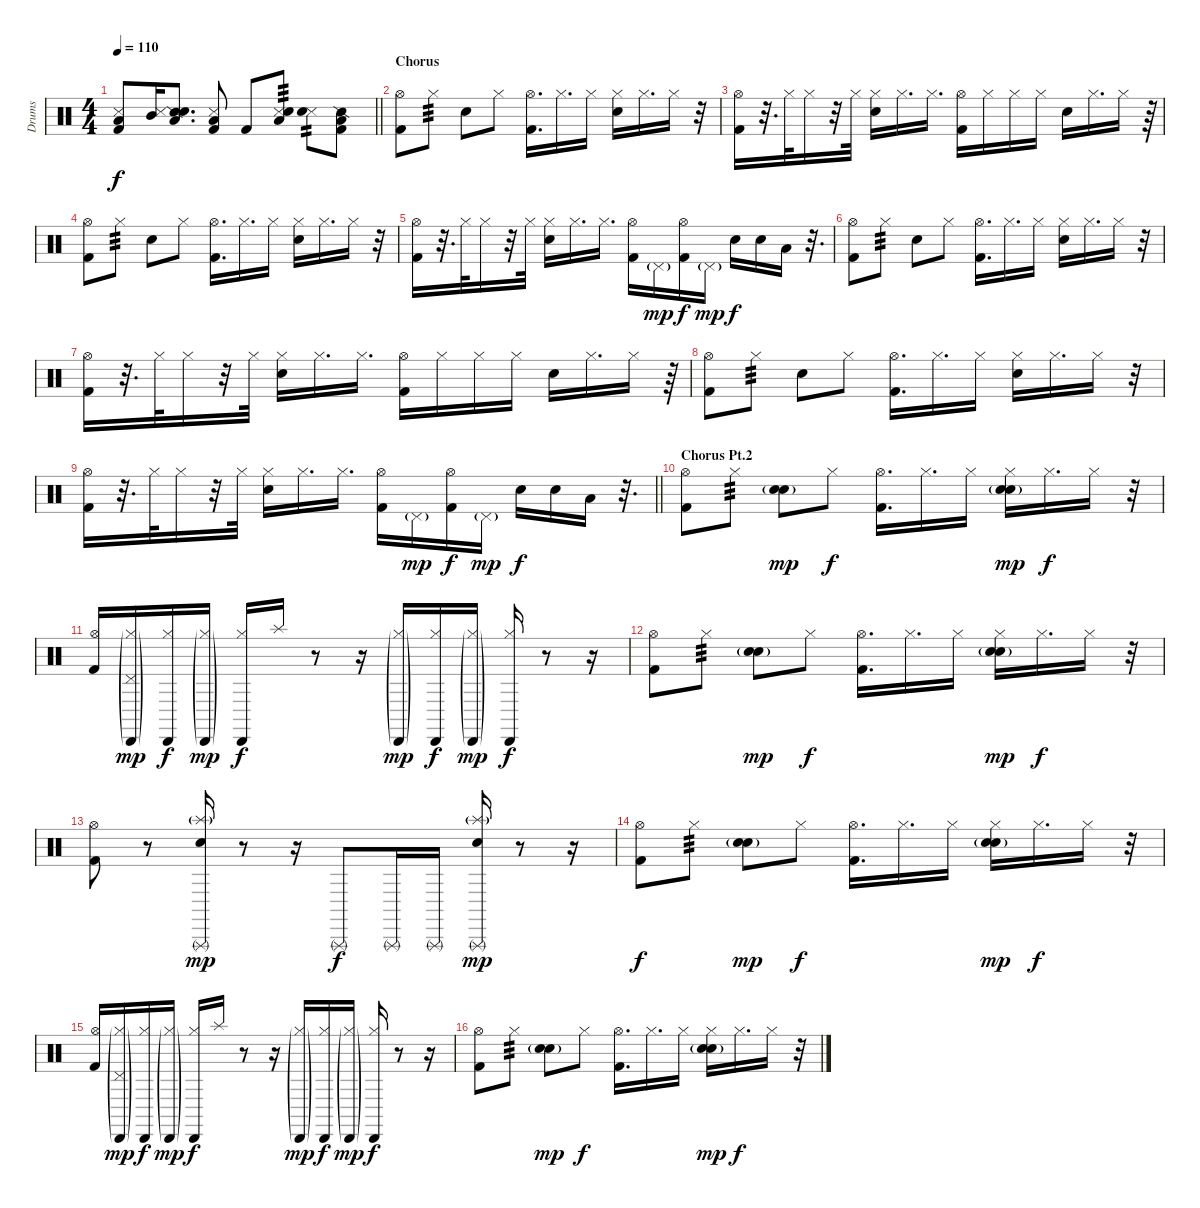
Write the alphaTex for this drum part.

\track ("Drums" "Drums") {instrument percussion}
\staff {score}
\articulation defaults
\ts (4 4)
\tempo 110
\clef neutral
\barLineRight lightlight
\ks c
("Snare (side stick) 3" "Low Tom (hit)" "Kick (hit) 2").8{dy f} ("Snare (side stick) 3" "Mid Tom (hit)").16 ("Snare (side stick) 2" "Low Tom (hit)" "Snare (hit) 2").8{d} ("Snare (side stick) 3" "Low Tom (hit)" "Kick (hit) 2").8 "Kick (hit) 2".8 ("Snare (side stick) 3" "Low Tom (hit)" "Snare (hit) 2").8{tp 3} ("Snare (side stick) 3" "Snare (hit) 2").8{tp 2} ("Snare (side stick) 2" "Low Tom (hit)" "Kick (hit) 2").8 |
\section ("" "Chorus")
("Hi-Hat (open)" "Kick (hit) 2").8 "Hi-Hat (closed)".8{tp 3} "Snare (hit) 2".8 "Hi-Hat (closed)".8 ("Hi-Hat (open)" "Kick (hit) 2").16{d} "Hi-Hat (closed)".16{d} "Hi-Hat (closed)".16 ("Hi-Hat (closed)" "Snare (hit) 2").16 "Hi-Hat (closed)".16{d} "Hi-Hat (closed)".16 r.32 |
("Hi-Hat (open)" "Kick (hit) 2").16 r.32{d} "Hi-Hat (closed)".32 "Hi-Hat (closed)".16 r.32 "Hi-Hat (closed)".32 ("Hi-Hat (closed)" "Snare (hit) 2").16 "Hi-Hat (closed)".16{d} "Hi-Hat (closed)".16{d} ("Hi-Hat (open)" "Kick (hit) 2").16 "Hi-Hat (closed)".16 "Hi-Hat (closed)".16 "Hi-Hat (closed)".16 "Snare (hit) 2".16 "Hi-Hat (closed)".16{d} "Hi-Hat (closed)".16 r.64 |
("Hi-Hat (open)" "Kick (hit) 2").8 "Hi-Hat (closed)".8{tp 3} "Snare (hit) 2".8 "Hi-Hat (closed)".8 ("Hi-Hat (open)" "Kick (hit) 2").16{d} "Hi-Hat (closed)".16{d} "Hi-Hat (closed)".16 ("Hi-Hat (closed)" "Snare (hit) 2").16 "Hi-Hat (closed)".16{d} "Hi-Hat (closed)".16 r.32 |
("Hi-Hat (open)" "Kick (hit) 2").16 r.32{d} "Hi-Hat (closed)".32 "Hi-Hat (closed)".16 r.32 "Hi-Hat (closed)".32 ("Hi-Hat (closed)" "Snare (hit) 2").16 "Hi-Hat (closed)".16{d} "Hi-Hat (closed)".16{d} ("Hi-Hat (open)" "Kick (hit) 2").16 "Pedal Hi-Hat (hit)"{g}.16{dy mp} ("Hi-Hat (open)" "Kick (hit) 2").16{dy f} "Pedal Hi-Hat (hit)"{g}.16{dy mp} "Snare (hit) 2".16{dy f} "Snare (hit) 2".16 "Low Tom (hit)".16 r.32{d} |
("Hi-Hat (open)" "Kick (hit) 2").8 "Hi-Hat (closed)".8{tp 3} "Snare (hit) 2".8 "Hi-Hat (closed)".8 ("Hi-Hat (open)" "Kick (hit) 2").16{d} "Hi-Hat (closed)".16{d} "Hi-Hat (closed)".16 ("Hi-Hat (closed)" "Snare (hit) 2").16 "Hi-Hat (closed)".16{d} "Hi-Hat (closed)".16 r.32 |
("Hi-Hat (open)" "Kick (hit) 2").16 r.32{d} "Hi-Hat (closed)".32 "Hi-Hat (closed)".16 r.32 "Hi-Hat (closed)".32 ("Hi-Hat (closed)" "Snare (hit) 2").16 "Hi-Hat (closed)".16{d} "Hi-Hat (closed)".16{d} ("Hi-Hat (open)" "Kick (hit) 2").16 "Hi-Hat (closed)".16 "Hi-Hat (closed)".16 "Hi-Hat (closed)".16 "Snare (hit) 2".16 "Hi-Hat (closed)".16{d} "Hi-Hat (closed)".16 r.64 |
("Hi-Hat (open)" "Kick (hit) 2").8 "Hi-Hat (closed)".8{tp 3} "Snare (hit) 2".8 "Hi-Hat (closed)".8 ("Hi-Hat (open)" "Kick (hit) 2").16{d} "Hi-Hat (closed)".16{d} "Hi-Hat (closed)".16 ("Hi-Hat (closed)" "Snare (hit) 2").16 "Hi-Hat (closed)".16{d} "Hi-Hat (closed)".16 r.32 |
\barLineRight lightlight
("Hi-Hat (open)" "Kick (hit) 2").16 r.32{d} "Hi-Hat (closed)".32 "Hi-Hat (closed)".16 r.32 "Hi-Hat (closed)".32 ("Hi-Hat (closed)" "Snare (hit) 2").16 "Hi-Hat (closed)".16{d} "Hi-Hat (closed)".16{d} ("Hi-Hat (open)" "Kick (hit) 2").16 "Pedal Hi-Hat (hit)"{g}.16{dy mp} ("Hi-Hat (open)" "Kick (hit) 2").16{dy f} "Pedal Hi-Hat (hit)"{g}.16{dy mp} "Snare (hit) 2".16{dy f} "Snare (hit) 2".16 "Low Tom (hit)".16 r.32{d} |
\section ("" "Chorus Pt.2")
("Hi-Hat (open)" "Kick (hit) 2").8 "Hi-Hat (closed)".8{tp 3} ("Hand Clap (hit)"{g} "Snare (hit) 2").8{dy mp} "Hi-Hat (closed)".8{dy f} ("Hi-Hat (open)" "Kick (hit) 2").16{d} "Hi-Hat (closed)".16{d} "Hi-Hat (closed)".16 ("Hand Clap (hit)"{g} "Hi-Hat (closed)" "Snare (hit) 2").16{dy mp} "Hi-Hat (closed)".16{d dy f} "Hi-Hat (closed)".16 r.32 |
("Hi-Hat (open)" "Kick (hit) 2").16 ("Hi-Hat (closed)"{g} "Cabasa (hit)"{g} "Pedal Hi-Hat (hit)"{g}).16{dy mp} ("Hi-Hat (closed)" "Cabasa (hit)").16{dy f} ("Hi-Hat (closed)"{g} "Cabasa (hit)"{g}).16{dy mp} ("Hi-Hat (closed)" "Cabasa (hit)").16{dy f} "Splash (hit)".16 r.8 r.16 ("Hi-Hat (closed)"{g} "Cabasa (hit)"{g}).16{dy mp} ("Hi-Hat (closed)" "Cabasa (hit)").16{dy f} ("Hi-Hat (closed)"{g} "Cabasa (hit)"{g}).16{dy mp} ("Hi-Hat (closed)" "Cabasa (hit)").16{dy f} r.8 r.16 |
("Hi-Hat (open)" "Kick (hit) 2").8 "Hi-Hat (closed)".8{tp 3} ("Hand Clap (hit)"{g} "Snare (hit) 2").8{dy mp} "Hi-Hat (closed)".8{dy f} ("Hi-Hat (open)" "Kick (hit) 2").16{d} "Hi-Hat (closed)".16{d} "Hi-Hat (closed)".16 ("Hand Clap (hit)"{g} "Hi-Hat (closed)" "Snare (hit) 2").16{dy mp} "Hi-Hat (closed)".16{d dy f} "Hi-Hat (closed)".16 r.32 |
("Hi-Hat (open)" "Kick (hit) 2").8 r.8 ("Triangle (rnute)" "Splash (hit)"{g} "Hand Clap (hit)").16{dy mp} r.8 r.16 "Triangle (rnute)".8{dy f} "Triangle (rnute)".16 "Triangle (rnute)".16 ("Triangle (rnute)" "Splash (hit)"{g} "Hand Clap (hit)").16{dy mp} r.8 r.16 |
("Hi-Hat (open)" "Kick (hit) 2").8{dy f} "Hi-Hat (closed)".8{tp 3} ("Hand Clap (hit)"{g} "Snare (hit) 2").8{dy mp} "Hi-Hat (closed)".8{dy f} ("Hi-Hat (open)" "Kick (hit) 2").16{d} "Hi-Hat (closed)".16{d} "Hi-Hat (closed)".16 ("Hand Clap (hit)"{g} "Hi-Hat (closed)" "Snare (hit) 2").16{dy mp} "Hi-Hat (closed)".16{d dy f} "Hi-Hat (closed)".16 r.32 |
("Hi-Hat (open)" "Kick (hit) 2").16 ("Hi-Hat (closed)"{g} "Cabasa (hit)"{g} "Pedal Hi-Hat (hit)"{g}).16{dy mp} ("Hi-Hat (closed)" "Cabasa (hit)").16{dy f} ("Hi-Hat (closed)"{g} "Cabasa (hit)"{g}).16{dy mp} ("Hi-Hat (closed)" "Cabasa (hit)").16{dy f} "Splash (hit)".16 r.8 r.16 ("Hi-Hat (closed)"{g} "Cabasa (hit)"{g}).16{dy mp} ("Hi-Hat (closed)" "Cabasa (hit)").16{dy f} ("Hi-Hat (closed)"{g} "Cabasa (hit)"{g}).16{dy mp} ("Hi-Hat (closed)" "Cabasa (hit)").16{dy f} r.8 r.16 |
("Hi-Hat (open)" "Kick (hit) 2").8 "Hi-Hat (closed)".8{tp 3} ("Hand Clap (hit)"{g} "Snare (hit) 2").8{dy mp} "Hi-Hat (closed)".8{dy f} ("Hi-Hat (open)" "Kick (hit) 2").16{d} "Hi-Hat (closed)".16{d} "Hi-Hat (closed)".16 ("Hand Clap (hit)"{g} "Hi-Hat (closed)" "Snare (hit) 2").16{dy mp} "Hi-Hat (closed)".16{d dy f} "Hi-Hat (closed)".16 r.32
